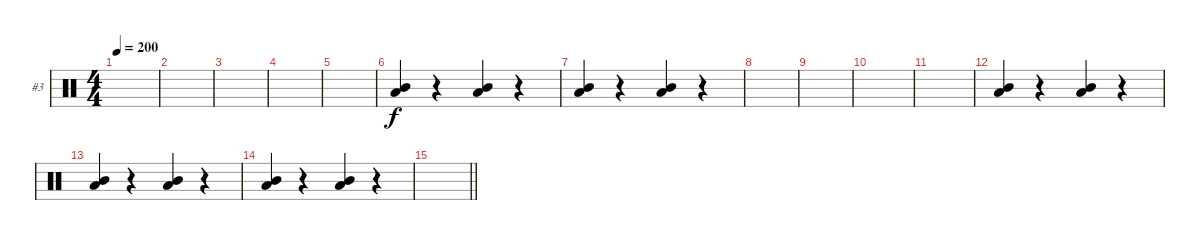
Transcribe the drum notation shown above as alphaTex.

\bracketExtendMode groupsimilarinstruments
\firstSystemTrackNameOrientation horizontal
\otherSystemsTrackNameOrientation horizontal
\track ("Chris Fehn" "#3") {instrument percussion}
\staff {score}
\articulation defaults
\ts (4 4)
\tempo 200
\clef neutral
\ks c
|
|
|
|
|
("Low Tom (hit)" "Mid Tom (hit)").4 r.4 ("Low Tom (hit)" "Mid Tom (hit)").4 r.4 |
("Low Tom (hit)" "Mid Tom (hit)").4 r.4 ("Low Tom (hit)" "Mid Tom (hit)").4 r.4 |
|
|
|
|
("Low Tom (hit)" "Mid Tom (hit)").4 r.4 ("Low Tom (hit)" "Mid Tom (hit)").4 r.4 |
("Low Tom (hit)" "Mid Tom (hit)").4 r.4 ("Low Tom (hit)" "Mid Tom (hit)").4 r.4 |
("Low Tom (hit)" "Mid Tom (hit)").4 r.4 ("Low Tom (hit)" "Mid Tom (hit)").4 r.4 |
\barLineRight lightlight
